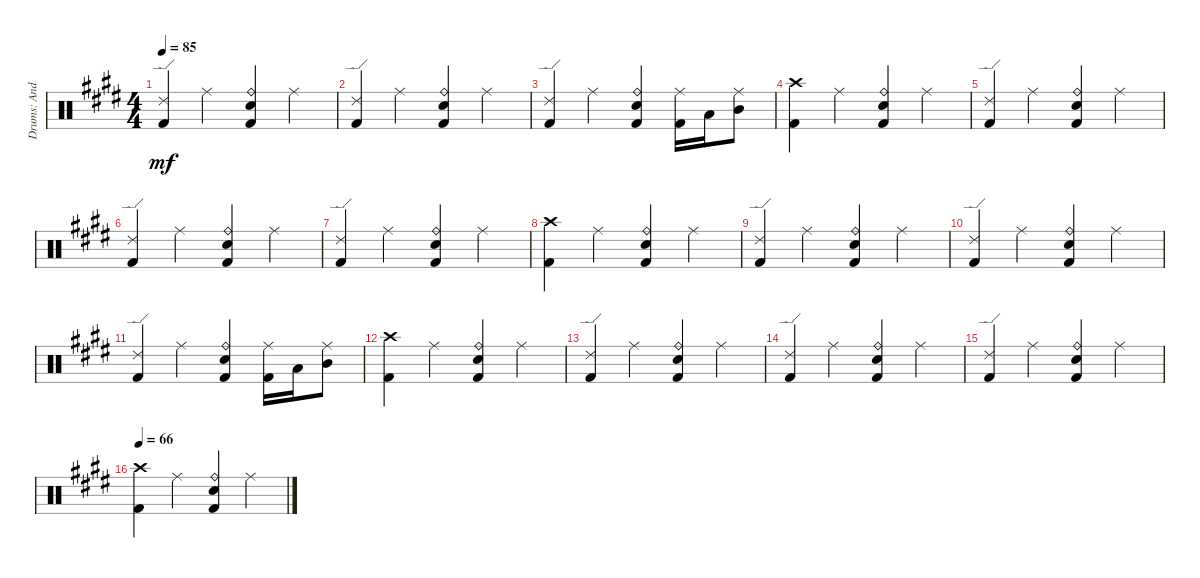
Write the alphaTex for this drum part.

\track ("Drums: Andy" "Drums: And") {instrument percussion}
\staff {score}
\articulation defaults
\ts (4 4)
\tempo 85
\clef neutral
\ks e
("Ride (edge) 2" "Kick (hit) 2").4{dy mf} "Ride (middle)".4 ("Ride (bell)" "Electric Snare (hit)" "Kick (hit) 2").4 "Ride (middle)".4 |
("Ride (edge) 2" "Kick (hit) 2").4 "Ride (middle)".4 ("Ride (bell)" "Electric Snare (hit)" "Kick (hit) 2").4 "Ride (middle)".4 |
("Ride (edge) 2" "Kick (hit) 2").4 "Ride (middle)".4 ("Ride (bell)" "Electric Snare (hit)" "Kick (hit) 2").4 ("Ride (middle)" "Kick (hit) 2").16 "Low Tom (hit)".16 ("Ride (middle)" "Mid Tom (hit)").8 |
("Crash high (hit)" "Kick (hit) 2").4 "Ride (middle)".4 ("Ride (bell)" "Electric Snare (hit)" "Kick (hit) 2").4 "Ride (middle)".4 |
("Ride (edge) 2" "Kick (hit) 2").4 "Ride (middle)".4 ("Ride (bell)" "Electric Snare (hit)" "Kick (hit) 2").4 "Ride (middle)".4 |
("Ride (edge) 2" "Kick (hit) 2").4 "Ride (middle)".4 ("Ride (bell)" "Electric Snare (hit)" "Kick (hit) 2").4 "Ride (middle)".4 |
("Ride (edge) 2" "Kick (hit) 2").4 "Ride (middle)".4 ("Ride (bell)" "Electric Snare (hit)" "Kick (hit) 2").4 "Ride (middle)".4 |
("Crash high (hit)" "Kick (hit) 2").4 "Ride (middle)".4 ("Ride (bell)" "Electric Snare (hit)" "Kick (hit) 2").4 "Ride (middle)".4 |
("Ride (edge) 2" "Kick (hit) 2").4 "Ride (middle)".4 ("Ride (bell)" "Electric Snare (hit)" "Kick (hit) 2").4 "Ride (middle)".4 |
("Ride (edge) 2" "Kick (hit) 2").4 "Ride (middle)".4 ("Ride (bell)" "Electric Snare (hit)" "Kick (hit) 2").4 "Ride (middle)".4 |
("Ride (edge) 2" "Kick (hit) 2").4 "Ride (middle)".4 ("Ride (bell)" "Electric Snare (hit)" "Kick (hit) 2").4 ("Ride (middle)" "Kick (hit) 2").16 "Low Tom (hit)".16 ("Ride (middle)" "Mid Tom (hit)").8 |
("Crash high (hit)" "Kick (hit) 2").4 "Ride (middle)".4 ("Ride (bell)" "Electric Snare (hit)" "Kick (hit) 2").4 "Ride (middle)".4 |
("Ride (edge) 2" "Kick (hit) 2").4 "Ride (middle)".4 ("Ride (bell)" "Electric Snare (hit)" "Kick (hit) 2").4 "Ride (middle)".4 |
("Ride (edge) 2" "Kick (hit) 2").4 "Ride (middle)".4 ("Ride (bell)" "Electric Snare (hit)" "Kick (hit) 2").4 "Ride (middle)".4 |
("Ride (edge) 2" "Kick (hit) 2").4 "Ride (middle)".4 ("Ride (bell)" "Electric Snare (hit)" "Kick (hit) 2").4 "Ride (middle)".4 |
\tempo 66
("Crash high (hit)" "Kick (hit) 2").4 "Ride (middle)".4 ("Ride (bell)" "Electric Snare (hit)" "Kick (hit) 2").4 "Ride (middle)".4
